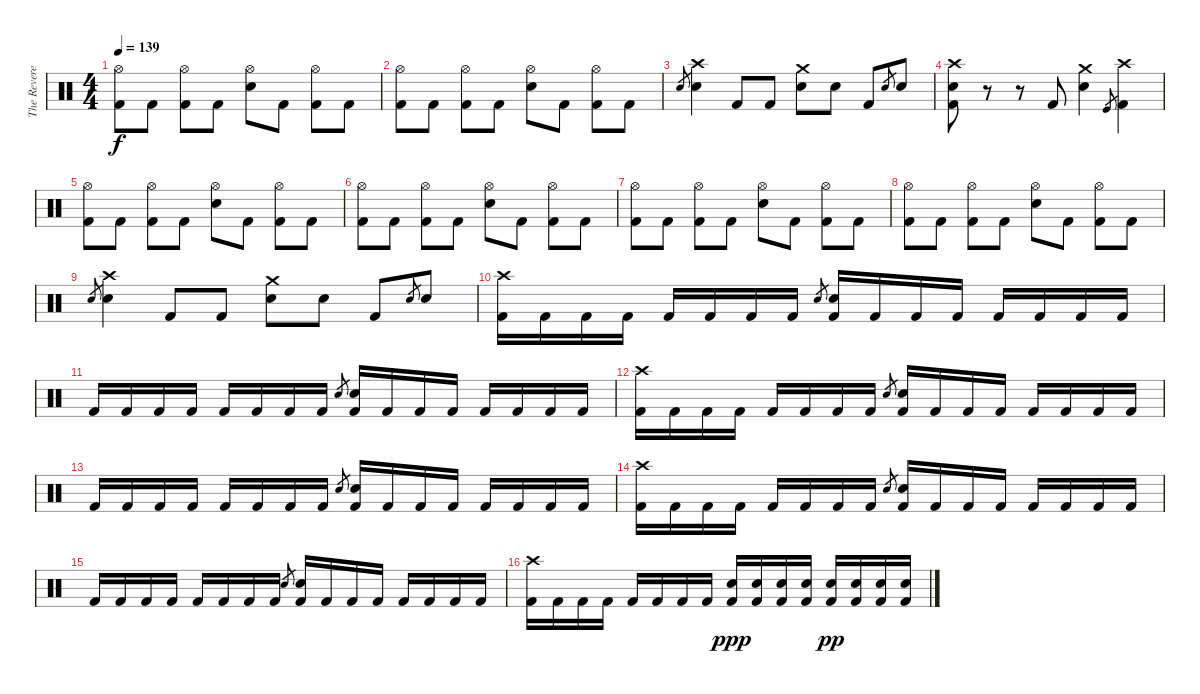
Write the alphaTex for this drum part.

\track ("The Reverend" "The Revere") {instrument percussion}
\staff {score}
\articulation defaults
\ts (4 4)
\tempo 139
\clef neutral
\ks c
("Hi-Hat (open)" "Kick (hit) 2").8{dy f} "Kick (hit) 2".8 ("Hi-Hat (open)" "Kick (hit) 2").8 "Kick (hit) 2".8 ("Hi-Hat (open)" "Electric Snare (hit)").8 "Kick (hit) 2".8 ("Hi-Hat (open)" "Kick (hit) 2").8 "Kick (hit) 2".8 |
("Hi-Hat (open)" "Kick (hit) 2").8 "Kick (hit) 2".8 ("Hi-Hat (open)" "Kick (hit) 2").8 "Kick (hit) 2".8 ("Hi-Hat (open)" "Electric Snare (hit)").8 "Kick (hit) 2".8 ("Hi-Hat (open)" "Kick (hit) 2").8 "Kick (hit) 2".8 |
"Electric Snare (hit)".8{gr} ("Crash high (hit)" "Electric Snare (hit)").4 "Kick (hit) 2".8 "Kick (hit) 2".8 ("Crash medium (hit)" "Electric Snare (hit)").8 "Electric Snare (hit)".8 "Kick (hit) 2".8 "Electric Snare (hit)".8{gr} "Electric Snare (hit)".8 |
("Crash high (hit)" "Electric Snare (hit)" "Kick (hit) 2").8 r.8 r.8 "Kick (hit) 2".8 ("Crash medium (hit)" "Electric Snare (hit)").4 "Kick (hit)".8{gr} ("Crash high (hit)" "Kick (hit) 2").4 |
("Hi-Hat (open)" "Kick (hit) 2").8 "Kick (hit) 2".8 ("Hi-Hat (open)" "Kick (hit) 2").8 "Kick (hit) 2".8 ("Hi-Hat (open)" "Electric Snare (hit)").8 "Kick (hit) 2".8 ("Hi-Hat (open)" "Kick (hit) 2").8 "Kick (hit) 2".8 |
("Hi-Hat (open)" "Kick (hit) 2").8 "Kick (hit) 2".8 ("Hi-Hat (open)" "Kick (hit) 2").8 "Kick (hit) 2".8 ("Hi-Hat (open)" "Electric Snare (hit)").8 "Kick (hit) 2".8 ("Hi-Hat (open)" "Kick (hit) 2").8 "Kick (hit) 2".8 |
("Hi-Hat (open)" "Kick (hit) 2").8 "Kick (hit) 2".8 ("Hi-Hat (open)" "Kick (hit) 2").8 "Kick (hit) 2".8 ("Hi-Hat (open)" "Electric Snare (hit)").8 "Kick (hit) 2".8 ("Hi-Hat (open)" "Kick (hit) 2").8 "Kick (hit) 2".8 |
("Hi-Hat (open)" "Kick (hit) 2").8 "Kick (hit) 2".8 ("Hi-Hat (open)" "Kick (hit) 2").8 "Kick (hit) 2".8 ("Hi-Hat (open)" "Electric Snare (hit)").8 "Kick (hit) 2".8 ("Hi-Hat (open)" "Kick (hit) 2").8 "Kick (hit) 2".8 |
"Electric Snare (hit)".8{gr} ("Crash high (hit)" "Electric Snare (hit)").4 "Kick (hit) 2".8 "Kick (hit) 2".8 ("Crash medium (hit)" "Electric Snare (hit)").8 "Electric Snare (hit)".8 "Kick (hit) 2".8 "Electric Snare (hit)".8{gr} "Electric Snare (hit)".8 |
("Crash high (hit)" "Kick (hit) 2").16 "Kick (hit) 2".16 "Kick (hit) 2".16 "Kick (hit) 2".16 "Kick (hit) 2".16 "Kick (hit) 2".16 "Kick (hit) 2".16 "Kick (hit) 2".16 "Electric Snare (hit)".8{gr} ("Electric Snare (hit)" "Kick (hit) 2").16 "Kick (hit) 2".16 "Kick (hit) 2".16 "Kick (hit) 2".16 "Kick (hit) 2".16 "Kick (hit) 2".16 "Kick (hit) 2".16 "Kick (hit) 2".16 |
"Kick (hit) 2".16 "Kick (hit) 2".16 "Kick (hit) 2".16 "Kick (hit) 2".16 "Kick (hit) 2".16 "Kick (hit) 2".16 "Kick (hit) 2".16 "Kick (hit) 2".16 "Electric Snare (hit)".8{gr} ("Electric Snare (hit)" "Kick (hit) 2").16 "Kick (hit) 2".16 "Kick (hit) 2".16 "Kick (hit) 2".16 "Kick (hit) 2".16 "Kick (hit) 2".16 "Kick (hit) 2".16 "Kick (hit) 2".16 |
("Crash high (hit)" "Kick (hit) 2").16 "Kick (hit) 2".16 "Kick (hit) 2".16 "Kick (hit) 2".16 "Kick (hit) 2".16 "Kick (hit) 2".16 "Kick (hit) 2".16 "Kick (hit) 2".16 "Electric Snare (hit)".8{gr} ("Electric Snare (hit)" "Kick (hit) 2").16 "Kick (hit) 2".16 "Kick (hit) 2".16 "Kick (hit) 2".16 "Kick (hit) 2".16 "Kick (hit) 2".16 "Kick (hit) 2".16 "Kick (hit) 2".16 |
"Kick (hit) 2".16 "Kick (hit) 2".16 "Kick (hit) 2".16 "Kick (hit) 2".16 "Kick (hit) 2".16 "Kick (hit) 2".16 "Kick (hit) 2".16 "Kick (hit) 2".16 "Electric Snare (hit)".8{gr} ("Electric Snare (hit)" "Kick (hit) 2").16 "Kick (hit) 2".16 "Kick (hit) 2".16 "Kick (hit) 2".16 "Kick (hit) 2".16 "Kick (hit) 2".16 "Kick (hit) 2".16 "Kick (hit) 2".16 |
("Crash high (hit)" "Kick (hit) 2").16 "Kick (hit) 2".16 "Kick (hit) 2".16 "Kick (hit) 2".16 "Kick (hit) 2".16 "Kick (hit) 2".16 "Kick (hit) 2".16 "Kick (hit) 2".16 "Electric Snare (hit)".8{gr} ("Electric Snare (hit)" "Kick (hit) 2").16 "Kick (hit) 2".16 "Kick (hit) 2".16 "Kick (hit) 2".16 "Kick (hit) 2".16 "Kick (hit) 2".16 "Kick (hit) 2".16 "Kick (hit) 2".16 |
"Kick (hit) 2".16 "Kick (hit) 2".16 "Kick (hit) 2".16 "Kick (hit) 2".16 "Kick (hit) 2".16 "Kick (hit) 2".16 "Kick (hit) 2".16 "Kick (hit) 2".16 "Electric Snare (hit)".8{gr} ("Electric Snare (hit)" "Kick (hit) 2").16 "Kick (hit) 2".16 "Kick (hit) 2".16 "Kick (hit) 2".16 "Kick (hit) 2".16 "Kick (hit) 2".16 "Kick (hit) 2".16 "Kick (hit) 2".16 |
("Crash high (hit)" "Kick (hit) 2").16 "Kick (hit) 2".16 "Kick (hit) 2".16 "Kick (hit) 2".16 "Kick (hit) 2".16 "Kick (hit) 2".16 "Kick (hit) 2".16 "Kick (hit) 2".16 ("Electric Snare (hit)" "Kick (hit) 2").16{dy ppp} ("Electric Snare (hit)" "Kick (hit) 2").16 ("Electric Snare (hit)" "Kick (hit) 2").16 ("Electric Snare (hit)" "Kick (hit) 2").16 ("Electric Snare (hit)" "Kick (hit) 2").16{dy pp} ("Electric Snare (hit)" "Kick (hit) 2").16 ("Electric Snare (hit)" "Kick (hit) 2").16 ("Electric Snare (hit)" "Kick (hit) 2").16
